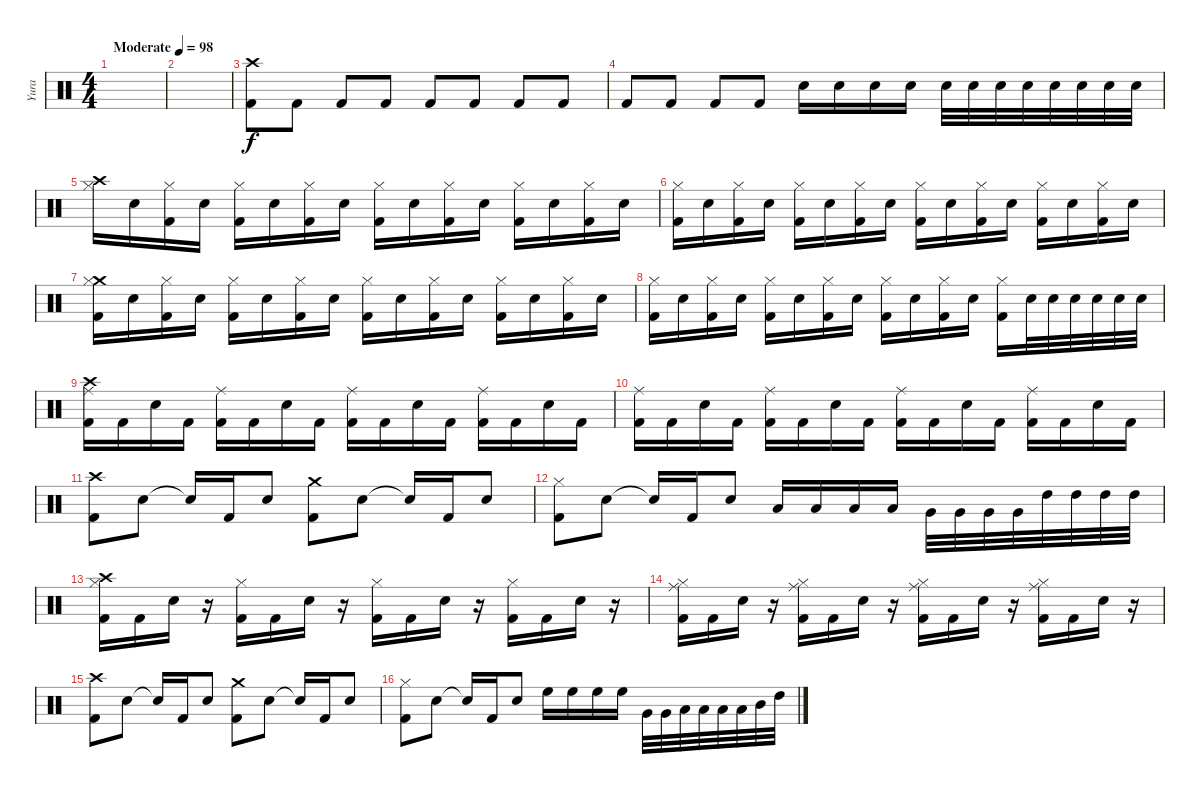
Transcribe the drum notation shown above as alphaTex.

\track ("Yura" "Yura") {instrument percussion}
\staff {score}
\articulation defaults
\ts (4 4)
\tempo (98 "Moderate")
\clef neutral
\ks c
|
|
("Crash high (hit)" "Kick (hit) 2").8 "Kick (hit) 2".8 "Kick (hit) 2".8 "Kick (hit) 2".8 "Kick (hit) 2".8 "Kick (hit) 2".8 "Kick (hit) 2".8 "Kick (hit) 2".8 |
"Kick (hit) 2".8 "Kick (hit) 2".8 "Kick (hit) 2".8 "Kick (hit) 2".8 "Snare (hit) 2".16 "Snare (hit) 2".16 "Snare (hit) 2".16 "Snare (hit) 2".16 "Electric Snare (hit)".32 "Electric Snare (hit)".32 "Electric Snare (hit)".32 "Electric Snare (hit)".32 "Snare (hit) 2".32 "Snare (hit) 2".32 "Snare (hit) 2".32 "Snare (hit) 2".32 |
("Crash high (hit)" "Hi-Hat (closed)").16 "Electric Snare (hit)".16 ("Hi-Hat (closed)" "Kick (hit) 2").16 "Electric Snare (hit)".16 ("Hi-Hat (closed)" "Kick (hit) 2").16 "Electric Snare (hit)".16 ("Hi-Hat (closed)" "Kick (hit) 2").16 "Electric Snare (hit)".16 ("Hi-Hat (closed)" "Kick (hit) 2").16 "Electric Snare (hit)".16 ("Hi-Hat (closed)" "Kick (hit) 2").16 "Electric Snare (hit)".16 ("Hi-Hat (closed)" "Kick (hit) 2").16 "Electric Snare (hit)".16 ("Hi-Hat (closed)" "Kick (hit) 2").16 "Electric Snare (hit)".16 |
("Hi-Hat (closed)" "Kick (hit) 2").16 "Electric Snare (hit)".16 ("Hi-Hat (closed)" "Kick (hit) 2").16 "Electric Snare (hit)".16 ("Hi-Hat (closed)" "Kick (hit) 2").16 "Electric Snare (hit)".16 ("Hi-Hat (closed)" "Kick (hit) 2").16 "Electric Snare (hit)".16 ("Hi-Hat (closed)" "Kick (hit) 2").16 "Electric Snare (hit)".16 ("Hi-Hat (closed)" "Kick (hit) 2").16 "Electric Snare (hit)".16 ("Hi-Hat (closed)" "Kick (hit) 2").16 "Electric Snare (hit)".16 ("Hi-Hat (closed)" "Kick (hit) 2").16 "Electric Snare (hit)".16 |
("Crash medium (hit)" "Hi-Hat (closed)" "Kick (hit) 2").16 "Snare (hit) 2".16 ("Hi-Hat (closed)" "Kick (hit) 2").16 "Snare (hit) 2".16 ("Hi-Hat (closed)" "Kick (hit) 2").16 "Snare (hit) 2".16 ("Hi-Hat (closed)" "Kick (hit) 2").16 "Snare (hit) 2".16 ("Hi-Hat (closed)" "Kick (hit) 2").16 "Snare (hit) 2".16 ("Hi-Hat (closed)" "Kick (hit) 2").16 "Snare (hit) 2".16 ("Hi-Hat (closed)" "Kick (hit) 2").16 "Snare (hit) 2".16 ("Hi-Hat (closed)" "Kick (hit) 2").16 "Snare (hit) 2".16 |
("Hi-Hat (closed)" "Kick (hit) 2").16 "Snare (hit) 2".16 ("Hi-Hat (closed)" "Kick (hit) 2").16 "Snare (hit) 2".16 ("Hi-Hat (closed)" "Kick (hit) 2").16 "Snare (hit) 2".16 ("Hi-Hat (closed)" "Kick (hit) 2").16 "Snare (hit) 2".16 ("Hi-Hat (closed)" "Kick (hit) 2").16 "Snare (hit) 2".16 ("Hi-Hat (closed)" "Kick (hit) 2").16 "Snare (hit) 2".16 ("Hi-Hat (closed)" "Kick (hit) 2").16 "Electric Snare (hit)".32 "Electric Snare (hit)".32 "Electric Snare (hit)".32 "Electric Snare (hit)".32 "Electric Snare (hit)".32 "Electric Snare (hit)".32 |
("Crash high (hit)" "Ride (middle)" "Kick (hit) 2").16 "Kick (hit) 2".16 "Snare (hit) 2".16 "Kick (hit) 2".16 ("Ride (middle)" "Kick (hit) 2").16 "Kick (hit) 2".16 "Snare (hit) 2".16 "Kick (hit) 2".16 ("Ride (middle)" "Kick (hit) 2").16 "Kick (hit) 2".16 "Snare (hit) 2".16 "Kick (hit) 2".16 ("Ride (middle)" "Kick (hit) 2").16 "Kick (hit) 2".16 "Snare (hit) 2".16 "Kick (hit) 2".16 |
("Ride (middle)" "Kick (hit) 2").16 "Kick (hit) 2".16 "Snare (hit) 2".16 "Kick (hit) 2".16 ("Ride (middle)" "Kick (hit) 2").16 "Kick (hit) 2".16 "Snare (hit) 2".16 "Kick (hit) 2".16 ("Ride (middle)" "Kick (hit) 2").16 "Kick (hit) 2".16 "Snare (hit) 2".16 "Kick (hit) 2".16 ("Ride (middle)" "Kick (hit) 2").16 "Kick (hit) 2".16 "Snare (hit) 2".16 "Kick (hit) 2".16 |
("Crash high (hit)" "Kick (hit) 2").8 "Snare (hit) 2".8 "Snare (hit)"{t}.16 "Kick (hit) 2".16 "Snare (hit) 2".8 ("Crash medium (hit)" "Kick (hit) 2").8 "Snare (hit) 2".8 "Snare (hit)"{t}.16 "Kick (hit) 2".16 "Snare (hit) 2".8 |
("Hi-Hat (closed)" "Kick (hit) 2").8 "Snare (hit) 2".8 "Snare (hit)"{t}.16 "Kick (hit) 2".16 "Snare (hit) 2".8 "Low Tom (hit)".16 "Low Tom (hit)".16 "Low Tom (hit)".16 "Low Tom (hit)".16 "Very Low Tom (hit)".32 "Very Low Tom (hit)".32 "Very Low Tom (hit)".32 "Very Low Tom (hit)".32 "High Tom (hit)".32 "High Tom (hit)".32 "High Tom (hit)".32 "High Tom (hit)".32 |
("Crash high (hit)" "Hi-Hat (closed)" "Kick (hit) 2").16 "Kick (hit) 2".16 "Snare (hit) 2".16 r.16 ("Hi-Hat (closed)" "Kick (hit) 2").16 "Kick (hit) 2".16 "Snare (hit) 2".16 r.16 ("Hi-Hat (closed)" "Kick (hit) 2").16 "Kick (hit) 2".16 "Snare (hit) 2".16 r.16 ("Hi-Hat (closed)" "Kick (hit) 2").16 "Kick (hit) 2".16 "Snare (hit) 2".16 r.16 |
("Ride (middle)" "Hi-Hat (closed)" "Kick (hit) 2").16 "Kick (hit) 2".16 "Snare (hit) 2".16 r.16 ("Ride (middle)" "Hi-Hat (closed)" "Kick (hit) 2").16 "Kick (hit) 2".16 "Snare (hit) 2".16 r.16 ("Ride (middle)" "Hi-Hat (closed)" "Kick (hit) 2").16 "Kick (hit) 2".16 "Snare (hit) 2".16 r.16 ("Ride (middle)" "Hi-Hat (closed)" "Kick (hit) 2").16 "Kick (hit) 2".16 "Snare (hit) 2".16 r.16 |
("Crash high (hit)" "Kick (hit) 2").8 "Snare (hit) 2".8 "Snare (hit)"{t}.16 "Kick (hit) 2".16 "Snare (hit) 2".8 ("Crash medium (hit)" "Kick (hit) 2").8 "Snare (hit) 2".8 "Snare (hit)"{t}.16 "Kick (hit) 2".16 "Snare (hit) 2".8 |
("Hi-Hat (closed)" "Kick (hit) 2").8 "Snare (hit) 2".8 "Snare (hit)"{t}.16 "Kick (hit) 2".16 "Snare (hit) 2".8 "High Floor Tom (hit)".16 "High Floor Tom (hit)".16 "High Floor Tom (hit)".16 "High Floor Tom (hit)".16 "Very Low Tom (hit)".32 "Very Low Tom (hit)".32 "Low Floor Tom (hit)".32 "Low Floor Tom (hit)".32 "Low Tom (hit)".32 "Low Tom (hit)".32 "Mid Tom (hit)".32 "High Tom (hit)".32
